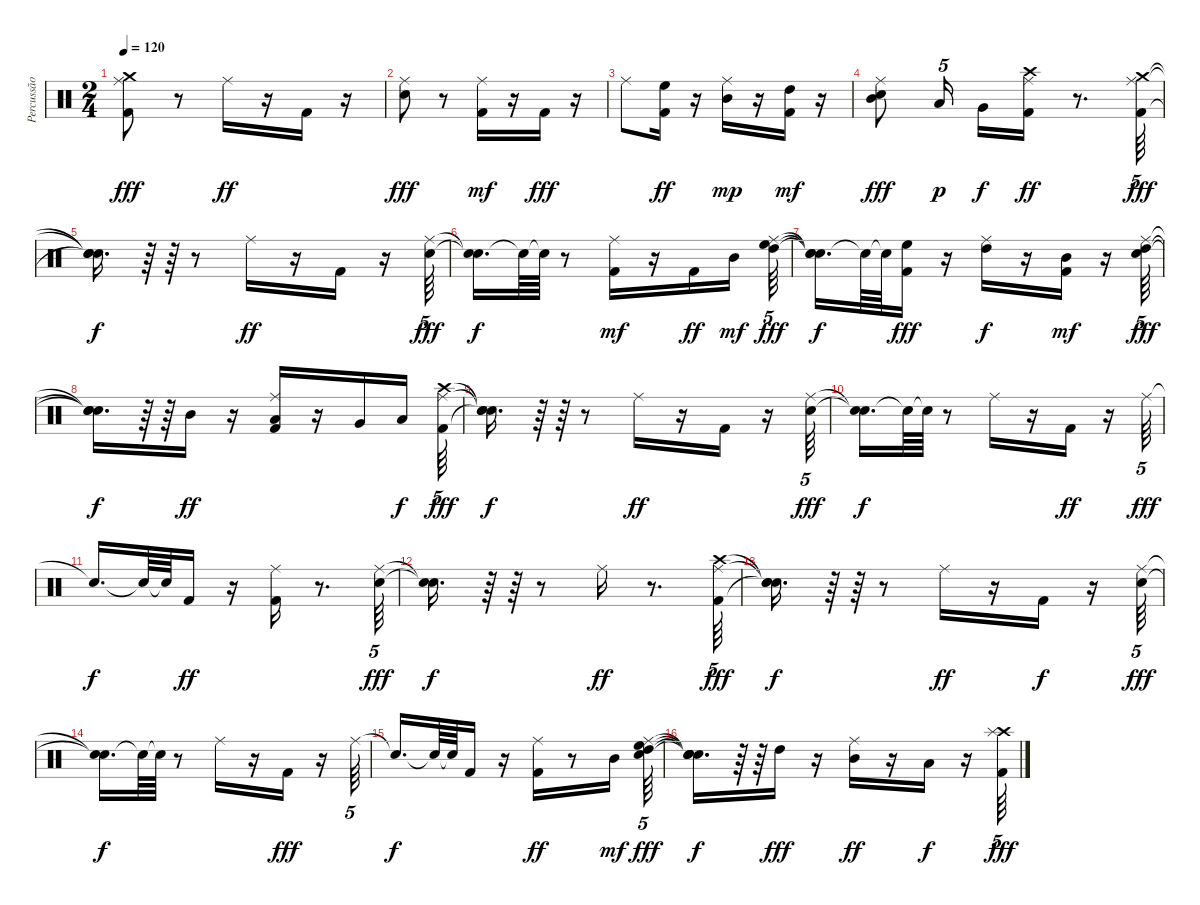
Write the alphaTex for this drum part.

\track ("Percussão" "Percussão") {instrument percussion}
\staff {score}
\articulation defaults
\ts (2 4)
\tempo 120
\clef neutral
\ks c
("Kick (hit) 2" "Ride (middle)" "Crash medium (hit)").8{dy fff} r.8 "Ride (middle)".16{dy ff} r.16 "Kick (hit) 2".16 r.16 |
("Snare (hit) 2" "Ride (middle)").8{dy fff} r.8 ("Kick (hit) 2" "Ride (middle)").16{dy mf} r.16 "Kick (hit) 2".16{dy fff} r.16 |
"Ride (middle)".8 ("High Floor Tom (hit)" "Kick (hit) 2").16{dy ff} r.16 ("Mid Tom (hit)" "Ride (middle)").16{dy mp} r.16 ("High Tom (hit)" "Kick (hit) 2").16{dy mf} r.16 |
("Mid Tom (hit)" "Snare (hit) 2" "Ride (middle)").8{dy fff} "Low Tom (hit)".16{tu (5 4) dy p beam splitsecondary} "Very Low Tom (hit)".16{dy f} ("Crash high (hit)" "Kick (hit) 2" "Ride (middle)").16{dy ff} r.8{d} ("Kick (hit) 2" "Ride (middle)" "Crash medium (hit)").64{tu (5 4) dy fff} |
("Snare (hit)"{t} "Snare (hit)"{t} "Snare (hit)"{t}).16{d dy f} r.64 r.64 r.8 "Ride (middle)".16{dy ff} r.16 "Kick (hit) 2".16 r.16 ("Snare (hit) 2" "Ride (middle)").64{tu (5 4) dy fff} |
("Snare (hit)"{t} "Snare (hit)"{t}).16{d dy f} "Snare (hit)"{t}.64 "Snare (hit)"{t}.64 r.8 ("Kick (hit) 2" "Ride (middle)").16{dy mf} r.16 "Kick (hit) 2".16{dy ff} "Mid Tom (hit)".16{dy mf} ("High Tom (hit)" "Ride (middle)" "High Floor Tom (hit)").64{tu (5 4) dy fff} |
("Snare (hit)"{t} "Snare (hit)"{t} "Snare (hit)"{t}).16{d dy f} "Snare (hit)"{t}.64 "Snare (hit)"{t}.64 ("High Floor Tom (hit)" "Kick (hit) 2").16{dy fff} r.16 ("High Tom (hit)" "Ride (middle)").16{dy f} r.16 ("Mid Tom (hit)" "Kick (hit) 2").16{dy mf} r.16 ("High Tom (hit)" "Snare (hit) 2" "Ride (middle)").64{tu (5 4) dy fff} |
("Snare (hit)"{t} "Snare (hit)"{t} "Snare (hit)"{t}).16{d dy f} r.64 r.64 "Mid Tom (hit)".16{dy ff} r.16 ("Low Tom (hit)" "Kick (hit) 2" "Ride (middle)").16 r.16 "Very Low Tom (hit)".16 "Low Tom (hit)".16{dy f} ("Crash high (hit)" "Kick (hit) 2" "Ride (middle)").64{tu (5 4) dy fff} |
("Snare (hit)"{t} "Snare (hit)"{t} "Snare (hit)"{t}).16{d dy f} r.64 r.64 r.8 "Ride (middle)".16{dy ff} r.16 "Kick (hit) 2".16 r.16 ("Snare (hit) 2" "Ride (middle)").64{tu (5 4) dy fff} |
("Snare (hit)"{t} "Snare (hit)"{t}).16{d dy f} "Snare (hit)"{t}.64 "Snare (hit)"{t}.64 r.8 "Ride (middle)".16 r.16 "Kick (hit) 2".16{dy ff} r.16 "Ride (middle)".64{tu (5 4) dy fff} |
"Snare (hit)"{t}.16{d dy f} "Snare (hit)"{t}.64 "Snare (hit)"{t}.64 "Kick (hit) 2".16{dy ff} r.16 ("Kick (hit) 2" "Ride (middle)").16 r.8{d} ("Snare (hit) 2" "Ride (middle)").64{tu (5 4) dy fff} |
("Snare (hit)"{t} "Snare (hit)"{t}).16{d dy f} r.64 r.64 r.8 "Ride (middle)".16{dy ff} r.8{d} ("Crash high (hit)" "Kick (hit) 2" "Ride (middle)").64{tu (5 4) dy fff} |
("Snare (hit)"{t} "Snare (hit)"{t} "Snare (hit)"{t}).16{d dy f} r.64 r.64 r.8 "Ride (middle)".16{dy ff} r.16 "Kick (hit) 2".16{dy f} r.16 ("Snare (hit) 2" "Ride (middle)").64{tu (5 4) dy fff} |
("Snare (hit)"{t} "Snare (hit)"{t}).16{d dy f} "Snare (hit)"{t}.64 "Snare (hit)"{t}.64 r.8 "Ride (middle)".16 r.16 "Kick (hit) 2".16{dy fff} r.16 "Ride (middle)".64{tu (5 4)} |
"Snare (hit)"{t}.16{d dy f} "Snare (hit)"{t}.64 "Snare (hit)"{t}.64 "Kick (hit) 2".16 r.16 ("Kick (hit) 2" "Ride (middle)").16{dy ff} r.8 "Mid Tom (hit)".16{dy mf} ("High Tom (hit)" "High Floor Tom (hit)" "Snare (hit) 2" "Ride (middle)").64{tu (5 4) dy fff} |
("Snare (hit)"{t} "Snare (hit)"{t} "Snare (hit)"{t} "Snare (hit)"{t}).16{d dy f} r.64 r.64 "High Tom (hit)".16{dy fff} r.16 ("Mid Tom (hit)" "Ride (middle)").16{dy ff} r.16 "Low Tom (hit)".16{dy f} r.16 ("Crash high (hit)" "Kick (hit) 2" "Splash (hit)").64{tu (5 4) dy fff}
